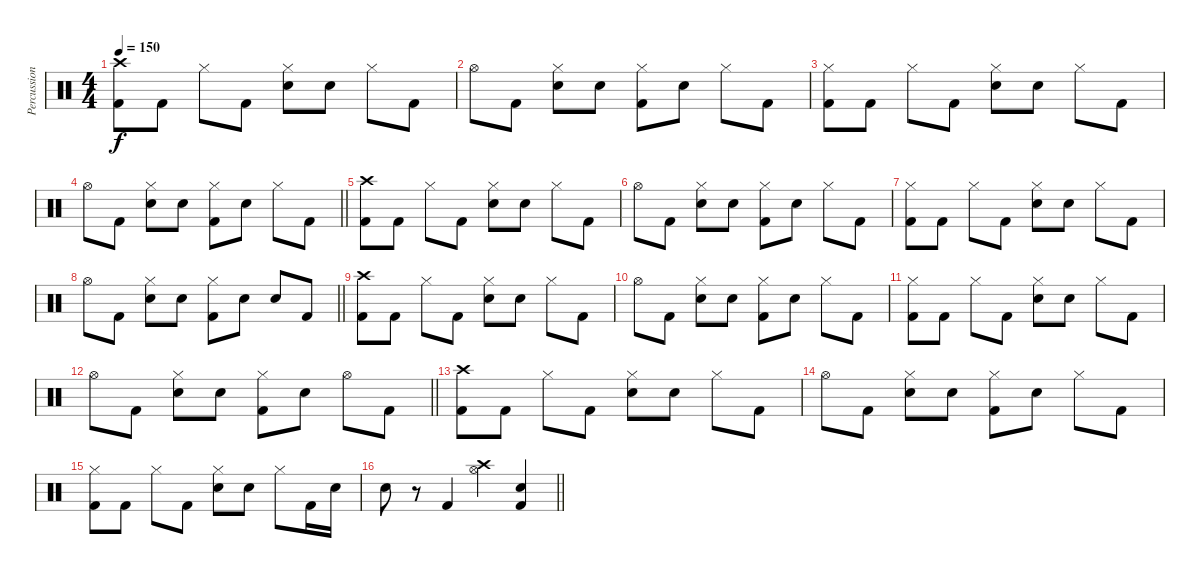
\track ("Percussion" "Percussion") {instrument percussion}
\staff {score}
\articulation defaults
\ts (4 4)
\tempo 150
\clef neutral
\ks c
("Crash high (hit)" "Kick (hit) 2").8{dy f} "Kick (hit) 2".8 "Hi-Hat (closed)".8 "Kick (hit) 2".8 ("Hi-Hat (closed)" "Electric Snare (hit)").8 "Electric Snare (hit)".8 "Hi-Hat (closed)".8 "Kick (hit) 2".8 |
"Hi-Hat (open)".8 "Kick (hit) 2".8 ("Hi-Hat (closed)" "Electric Snare (hit)").8 "Electric Snare (hit)".8 ("Hi-Hat (closed)" "Kick (hit) 2").8 "Electric Snare (hit)".8 "Hi-Hat (closed)".8 "Kick (hit) 2".8 |
("Hi-Hat (closed)" "Kick (hit) 2").8 "Kick (hit) 2".8 "Hi-Hat (closed)".8 "Kick (hit) 2".8 ("Hi-Hat (closed)" "Electric Snare (hit)").8 "Electric Snare (hit)".8 "Hi-Hat (closed)".8 "Kick (hit) 2".8 |
\barLineRight lightlight "Hi-Hat (open)".8 "Kick (hit) 2".8
("Hi-Hat (closed)" "Electric Snare (hit)").8 "Electric Snare (hit)".8 ("Hi-Hat (closed)" "Kick (hit) 2").8 "Electric Snare (hit)".8 "Hi-Hat (closed)".8 "Kick (hit) 2".8 |
("Crash high (hit)" "Kick (hit) 2").8 "Kick (hit) 2".8 "Hi-Hat (closed)".8 "Kick (hit) 2".8 ("Hi-Hat (closed)" "Electric Snare (hit)").8 "Electric Snare (hit)".8 "Hi-Hat (closed)".8 "Kick (hit) 2".8 |
"Hi-Hat (open)".8 "Kick (hit) 2".8 ("Hi-Hat (closed)" "Electric Snare (hit)").8 "Electric Snare (hit)".8 ("Hi-Hat (closed)" "Kick (hit) 2").8 "Electric Snare (hit)".8 "Hi-Hat (closed)".8 "Kick (hit) 2".8 |
("Hi-Hat (closed)" "Kick (hit) 2").8 "Kick (hit) 2".8 "Hi-Hat (closed)".8 "Kick (hit) 2".8 ("Hi-Hat (closed)" "Electric Snare (hit)").8 "Electric Snare (hit)".8 "Hi-Hat (closed)".8 "Kick (hit) 2".8 |
\barLineRight lightlight "Hi-Hat (open)".8 "Kick (hit) 2".8
("Hi-Hat (closed)" "Electric Snare (hit)").8 "Electric Snare (hit)".8 ("Hi-Hat (closed)" "Kick (hit) 2").8 "Electric Snare (hit)".8 "Electric Snare (hit)".8 "Kick (hit) 2".8 |
("Crash high (hit)" "Kick (hit) 2").8 "Kick (hit) 2".8 "Hi-Hat (closed)".8 "Kick (hit) 2".8 ("Hi-Hat (closed)" "Electric Snare (hit)").8 "Electric Snare (hit)".8 "Hi-Hat (closed)".8 "Kick (hit) 2".8 |
"Hi-Hat (open)".8 "Kick (hit) 2".8 ("Hi-Hat (closed)" "Electric Snare (hit)").8 "Electric Snare (hit)".8 ("Hi-Hat (closed)" "Kick (hit) 2").8 "Electric Snare (hit)".8 "Hi-Hat (closed)".8 "Kick (hit) 2".8 |
("Hi-Hat (closed)" "Kick (hit) 2").8 "Kick (hit) 2".8 "Hi-Hat (closed)".8 "Kick (hit) 2".8 ("Hi-Hat (closed)" "Electric Snare (hit)").8 "Electric Snare (hit)".8 "Hi-Hat (closed)".8 "Kick (hit) 2".8 |
\barLineRight lightlight "Hi-Hat (open)".8 "Kick (hit) 2".8
("Hi-Hat (closed)" "Electric Snare (hit)").8 "Electric Snare (hit)".8 ("Hi-Hat (closed)" "Kick (hit) 2").8 "Electric Snare (hit)".8 "Hi-Hat (open)".8 "Kick (hit) 2".8 |
("Crash high (hit)" "Kick (hit) 2").8 "Kick (hit) 2".8 "Hi-Hat (closed)".8 "Kick (hit) 2".8 ("Hi-Hat (closed)" "Electric Snare (hit)").8 "Electric Snare (hit)".8 "Hi-Hat (closed)".8 "Kick (hit) 2".8 |
"Hi-Hat (open)".8 "Kick (hit) 2".8 ("Hi-Hat (closed)" "Electric Snare (hit)").8 "Electric Snare (hit)".8 ("Hi-Hat (closed)" "Kick (hit) 2").8 "Electric Snare (hit)".8 "Hi-Hat (closed)".8 "Kick (hit) 2".8 |
("Hi-Hat (closed)" "Kick (hit) 2").8 "Kick (hit) 2".8 "Hi-Hat (closed)".8 "Kick (hit) 2".8 ("Hi-Hat (closed)" "Electric Snare (hit)").8 "Electric Snare (hit)".8 "Hi-Hat (closed)".8 "Kick (hit) 2".16 "Electric Snare (hit)".16 |
\barLineRight lightlight "Electric Snare (hit)".8
r.8 "Kick (hit) 2".4 ("Crash high (hit)" "Hi-Hat (open)").4 ("Electric Snare (hit)" "Kick (hit) 2").4
